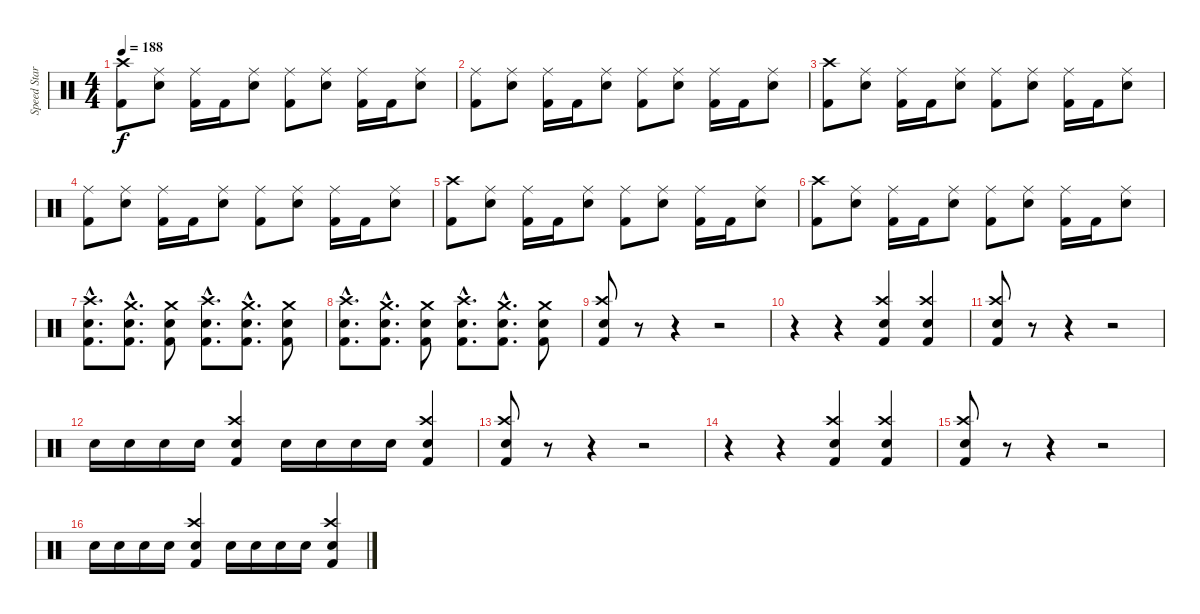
\track ("Speed Star Sypan Joe" "Speed Star") {instrument percussion}
\staff {score}
\articulation defaults
\ts (4 4)
\tempo 188
\clef neutral
\ks c
("Kick (hit) 2" "Crash high (hit)").8{dy f} ("Electric Snare (hit)" "Ride (middle)").8 ("Kick (hit) 2" "Ride (middle)").16 "Kick (hit) 2".16 ("Electric Snare (hit)" "Ride (middle)").8 ("Kick (hit) 2" "Ride (middle)").8 ("Electric Snare (hit)" "Ride (middle)").8 ("Kick (hit) 2" "Ride (middle)").16 "Kick (hit) 2".16 ("Electric Snare (hit)" "Ride (middle)").8 |
("Kick (hit) 2" "Ride (middle)").8 ("Electric Snare (hit)" "Ride (middle)").8 ("Kick (hit) 2" "Ride (middle)").16 "Kick (hit) 2".16 ("Electric Snare (hit)" "Ride (middle)").8 ("Kick (hit) 2" "Ride (middle)").8 ("Electric Snare (hit)" "Ride (middle)").8 ("Kick (hit) 2" "Ride (middle)").16 "Kick (hit) 2".16 ("Electric Snare (hit)" "Ride (middle)").8 |
("Kick (hit) 2" "Crash high (hit)").8 ("Electric Snare (hit)" "Ride (middle)").8 ("Kick (hit) 2" "Ride (middle)").16 "Kick (hit) 2".16 ("Electric Snare (hit)" "Ride (middle)").8 ("Kick (hit) 2" "Ride (middle)").8 ("Electric Snare (hit)" "Ride (middle)").8 ("Kick (hit) 2" "Ride (middle)").16 "Kick (hit) 2".16 ("Electric Snare (hit)" "Ride (middle)").8 |
("Kick (hit) 2" "Ride (middle)").8 ("Electric Snare (hit)" "Ride (middle)").8 ("Kick (hit) 2" "Ride (middle)").16 "Kick (hit) 2".16 ("Electric Snare (hit)" "Ride (middle)").8 ("Kick (hit) 2" "Ride (middle)").8 ("Electric Snare (hit)" "Ride (middle)").8 ("Kick (hit) 2" "Ride (middle)").16 "Kick (hit) 2".16 ("Electric Snare (hit)" "Ride (middle)").8 |
("Kick (hit) 2" "Crash high (hit)").8 ("Electric Snare (hit)" "Ride (middle)").8 ("Kick (hit) 2" "Ride (middle)").16 "Kick (hit) 2".16 ("Electric Snare (hit)" "Ride (middle)").8 ("Kick (hit) 2" "Ride (middle)").8 ("Electric Snare (hit)" "Ride (middle)").8 ("Kick (hit) 2" "Ride (middle)").16 "Kick (hit) 2".16 ("Electric Snare (hit)" "Ride (middle)").8 |
("Kick (hit) 2" "Crash high (hit)").8 ("Electric Snare (hit)" "Ride (middle)").8 ("Kick (hit) 2" "Ride (middle)").16 "Kick (hit) 2".16 ("Electric Snare (hit)" "Ride (middle)").8 ("Kick (hit) 2" "Ride (middle)").8 ("Electric Snare (hit)" "Ride (middle)").8 ("Kick (hit) 2" "Ride (middle)").16 "Kick (hit) 2".16 ("Electric Snare (hit)" "Ride (middle)").8 |
("Kick (hit) 2"{hac} "Electric Snare (hit)"{hac} "Crash high (hit)"{hac}).8{d} ("Kick (hit) 2"{hac} "Electric Snare (hit)"{hac} "Crash medium (hit)"{hac}).8{d} ("Kick (hit) 2" "Electric Snare (hit)" "Crash medium (hit)").8 ("Kick (hit) 2"{hac} "Electric Snare (hit)"{hac} "Crash high (hit)"{hac}).8{d} ("Kick (hit) 2"{hac} "Electric Snare (hit)"{hac} "Crash medium (hit)"{hac}).8{d} ("Kick (hit) 2" "Electric Snare (hit)" "Crash medium (hit)").8 |
("Kick (hit) 2"{hac} "Electric Snare (hit)"{hac} "Crash high (hit)"{hac}).8{d} ("Kick (hit) 2"{hac} "Electric Snare (hit)"{hac} "Crash medium (hit)"{hac}).8{d} ("Kick (hit) 2" "Electric Snare (hit)" "Crash medium (hit)").8 ("Kick (hit) 2"{hac} "Electric Snare (hit)"{hac} "Crash high (hit)"{hac}).8{d} ("Kick (hit) 2"{hac} "Electric Snare (hit)"{hac} "Crash medium (hit)"{hac}).8{d} ("Kick (hit) 2" "Electric Snare (hit)" "Crash medium (hit)").8 |
("Electric Snare (hit)" "Kick (hit) 2" "Crash high (hit)").8 r.8 r.4 r.2 |
r.4 r.4 ("Kick (hit) 2" "Electric Snare (hit)" "Crash high (hit)").4 ("Electric Snare (hit)" "Kick (hit) 2" "Crash high (hit)").4 |
("Electric Snare (hit)" "Kick (hit) 2" "Crash high (hit)").8 r.8 r.4 r.2 |
"Electric Snare (hit)".16 "Electric Snare (hit)".16 "Electric Snare (hit)".16 "Electric Snare (hit)".16 ("Electric Snare (hit)" "Kick (hit) 2" "Crash high (hit)").4 "Electric Snare (hit)".16 "Electric Snare (hit)".16 "Electric Snare (hit)".16 "Electric Snare (hit)".16 ("Electric Snare (hit)" "Kick (hit) 2" "Crash high (hit)").4 |
("Electric Snare (hit)" "Kick (hit) 2" "Crash high (hit)").8 r.8 r.4 r.2 |
r.4 r.4 ("Kick (hit) 2" "Electric Snare (hit)" "Crash high (hit)").4 ("Electric Snare (hit)" "Kick (hit) 2" "Crash high (hit)").4 |
("Electric Snare (hit)" "Kick (hit) 2" "Crash high (hit)").8 r.8 r.4 r.2 |
"Electric Snare (hit)".16 "Electric Snare (hit)".16 "Electric Snare (hit)".16 "Electric Snare (hit)".16 ("Electric Snare (hit)" "Kick (hit) 2" "Crash high (hit)").4 "Electric Snare (hit)".16 "Electric Snare (hit)".16 "Electric Snare (hit)".16 "Electric Snare (hit)".16 ("Electric Snare (hit)" "Kick (hit) 2" "Crash high (hit)").4
